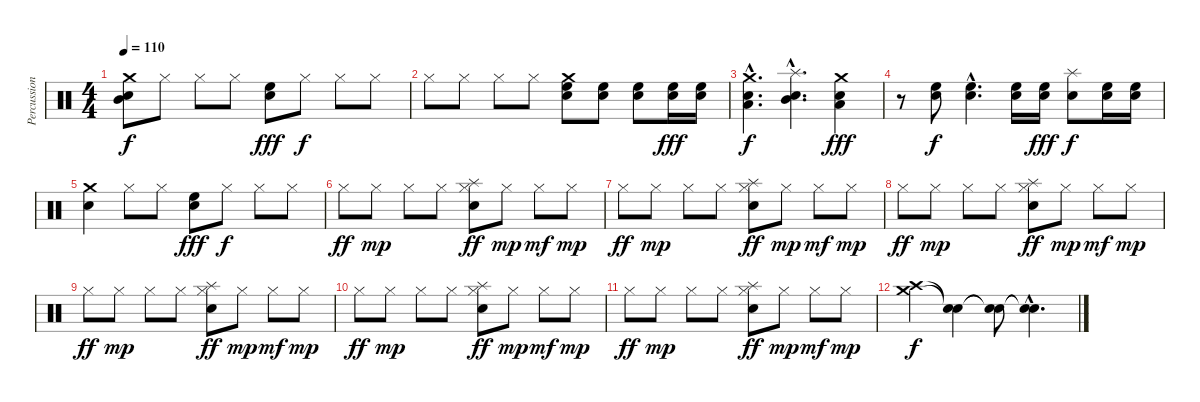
\track ("Percussions" "Percussion") {instrument percussion}
\staff {score}
\articulation defaults
\ts (4 4)
\tempo 110
\clef neutral
\ks c
("Snare (hit) 2" "Crash medium (hit)" "Mid Tom (hit)").8{dy f} "Hi-Hat (closed)".8 "Hi-Hat (closed)".8 "Hi-Hat (closed)".8 ("Snare (hit) 2" "High Floor Tom (hit)").8{dy fff} "Hi-Hat (closed)".8{dy f} "Hi-Hat (closed)".8 "Hi-Hat (closed)".8 |
"Hi-Hat (closed)".8 "Hi-Hat (closed)".8 "Hi-Hat (closed)".8 "Hi-Hat (closed)".8 ("Snare (hit) 2" "High Floor Tom (hit)" "Crash medium (hit)").8 ("Snare (hit) 2" "High Floor Tom (hit)").8 ("Snare (hit) 2" "High Floor Tom (hit)").8 ("Snare (hit) 2" "High Floor Tom (hit)").16{dy fff} ("Snare (hit) 2" "High Floor Tom (hit)").16 |
("Snare (hit) 2"{hac} "Crash medium (hit)"{hac} "Low Floor Tom (hit)"{hac}).4{d dy f balance 14} ("Snare (hit) 2"{hac} "Splash (hit)"{hac} "Mid Tom (hit)"{hac}).4{d balance 2} ("Snare (hit) 2" "Crash medium (hit)" "Low Floor Tom (hit)").4{dy fff balance 14} |
r.8{balance 8} ("Snare (hit) 2" "High Floor Tom (hit)").8{dy f} ("Snare (hit) 2"{hac} "High Floor Tom (hit)"{hac}).4{d} ("Snare (hit) 2" "High Floor Tom (hit)").16 ("Snare (hit) 2" "High Floor Tom (hit)").16{dy fff} ("Snare (hit) 2" "Splash (hit)").8{dy f} ("Snare (hit) 2" "High Floor Tom (hit)").16 ("Snare (hit) 2" "High Floor Tom (hit)").16 |
("Snare (hit) 2" "Crash medium (hit)").4 "Hi-Hat (closed)".8 "Hi-Hat (closed)".8 ("Snare (hit) 2" "High Floor Tom (hit)").8{dy fff} "Hi-Hat (closed)".8{dy f} "Hi-Hat (closed)".8 "Hi-Hat (closed)".8 |
"Hi-Hat (closed)".8{dy ff} "Hi-Hat (closed)".8{dy mp} "Hi-Hat (closed)".8 "Hi-Hat (closed)".8 ("Snare (hit) 2" "Splash (hit)" "Hi-Hat (closed)").8{dy ff} "Hi-Hat (closed)".8{dy mp} "Hi-Hat (closed)".8{dy mf} "Hi-Hat (closed)".8{dy mp} |
"Hi-Hat (closed)".8{dy ff} "Hi-Hat (closed)".8{dy mp} "Hi-Hat (closed)".8 "Hi-Hat (closed)".8 ("Snare (hit) 2" "Splash (hit)" "Hi-Hat (closed)").8{dy ff} "Hi-Hat (closed)".8{dy mp} "Hi-Hat (closed)".8{dy mf} "Hi-Hat (closed)".8{dy mp} |
"Hi-Hat (closed)".8{dy ff} "Hi-Hat (closed)".8{dy mp} "Hi-Hat (closed)".8 "Hi-Hat (closed)".8 ("Snare (hit) 2" "Splash (hit)" "Hi-Hat (closed)").8{dy ff} "Hi-Hat (closed)".8{dy mp} "Hi-Hat (closed)".8{dy mf} "Hi-Hat (closed)".8{dy mp} |
"Hi-Hat (closed)".8{dy ff} "Hi-Hat (closed)".8{dy mp} "Hi-Hat (closed)".8 "Hi-Hat (closed)".8 ("Snare (hit) 2" "Splash (hit)" "Hi-Hat (closed)").8{dy ff} "Hi-Hat (closed)".8{dy mp} "Hi-Hat (closed)".8{dy mf} "Hi-Hat (closed)".8{dy mp} |
"Hi-Hat (closed)".8{dy ff} "Hi-Hat (closed)".8{dy mp} "Hi-Hat (closed)".8 "Hi-Hat (closed)".8 ("Snare (hit) 2" "Splash (hit)" "Hi-Hat (closed)").8{dy ff} "Hi-Hat (closed)".8{dy mp} "Hi-Hat (closed)".8{dy mf} "Hi-Hat (closed)".8{dy mp} |
"Hi-Hat (closed)".8{dy ff} "Hi-Hat (closed)".8{dy mp} "Hi-Hat (closed)".8 "Hi-Hat (closed)".8 ("Snare (hit) 2" "Splash (hit)" "Hi-Hat (closed)").8{dy ff} "Hi-Hat (closed)".8{dy mp} "Hi-Hat (closed)".8{dy mf} "Hi-Hat (closed)".8{dy mp} |
("Crash high (hit)" "Crash medium (hit)").4{dy f} ("Snare (hit)"{t} "Snare (hit)"{t}).4 ("Snare (hit)"{t} "Snare (hit)"{t}).8 ("Snare (hit)"{hac t} "Snare (hit)"{hac t}).4{d}
